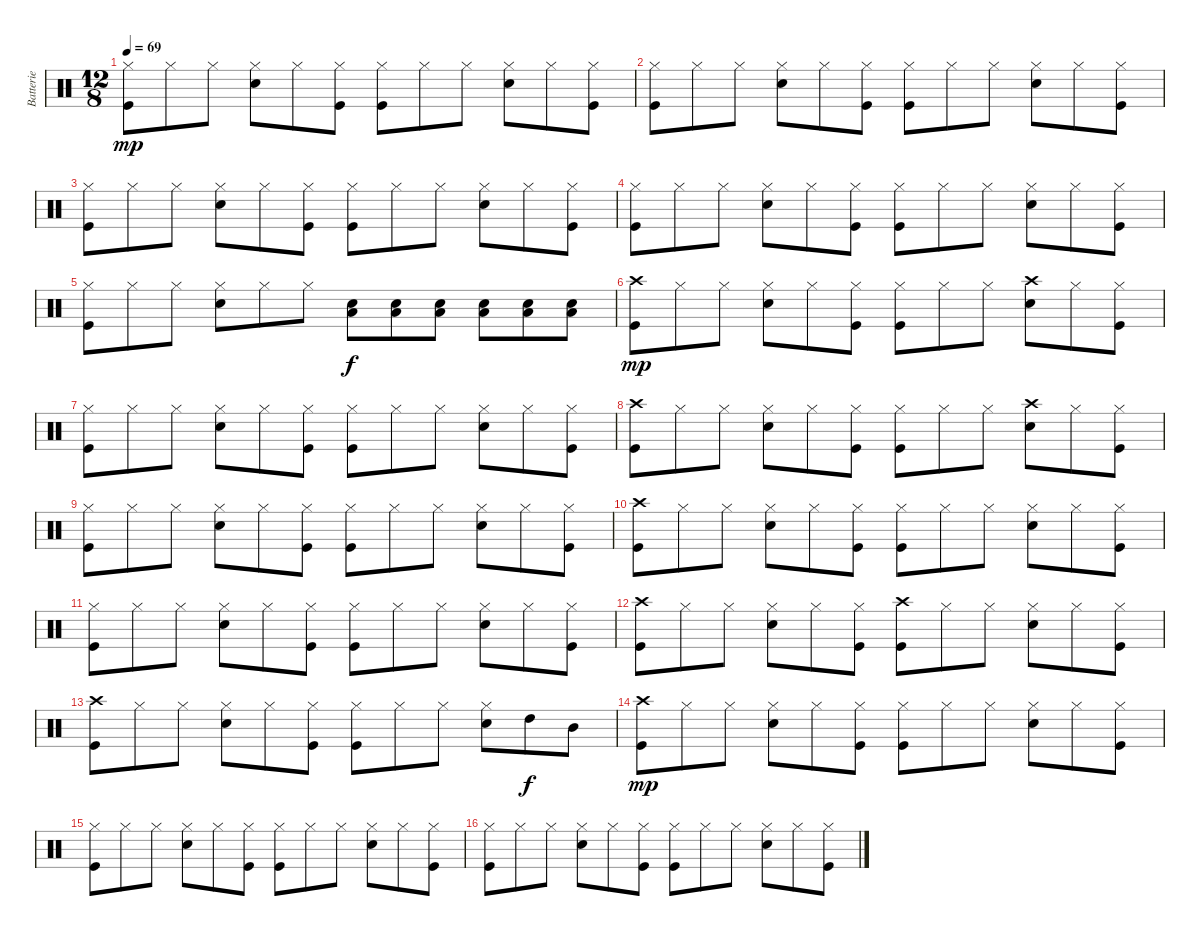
\track ("Batterie" "Batterie") {instrument percussion}
\staff {score}
\articulation defaults
\ts (12 8)
\tempo 69
\clef neutral
\ks c
("Hi-Hat (closed)" "Kick (hit)").8{dy mp} "Hi-Hat (closed)".8 "Hi-Hat (closed)".8 ("Hi-Hat (closed)" "Snare (hit) 2").8 "Hi-Hat (closed)".8 ("Hi-Hat (closed)" "Kick (hit)").8 ("Hi-Hat (closed)" "Kick (hit)").8 "Hi-Hat (closed)".8 "Hi-Hat (closed)".8 ("Hi-Hat (closed)" "Snare (hit) 2").8 "Hi-Hat (closed)".8 ("Hi-Hat (closed)" "Kick (hit)").8 |
("Hi-Hat (closed)" "Kick (hit)").8 "Hi-Hat (closed)".8 "Hi-Hat (closed)".8 ("Hi-Hat (closed)" "Snare (hit) 2").8 "Hi-Hat (closed)".8 ("Hi-Hat (closed)" "Kick (hit)").8 ("Hi-Hat (closed)" "Kick (hit)").8 "Hi-Hat (closed)".8 "Hi-Hat (closed)".8 ("Hi-Hat (closed)" "Snare (hit) 2").8 "Hi-Hat (closed)".8 ("Hi-Hat (closed)" "Kick (hit)").8 |
("Hi-Hat (closed)" "Kick (hit)").8 "Hi-Hat (closed)".8 "Hi-Hat (closed)".8 ("Hi-Hat (closed)" "Snare (hit) 2").8 "Hi-Hat (closed)".8 ("Hi-Hat (closed)" "Kick (hit)").8 ("Hi-Hat (closed)" "Kick (hit)").8 "Hi-Hat (closed)".8 "Hi-Hat (closed)".8 ("Hi-Hat (closed)" "Snare (hit) 2").8 "Hi-Hat (closed)".8 ("Hi-Hat (closed)" "Kick (hit)").8 |
("Hi-Hat (closed)" "Kick (hit)").8 "Hi-Hat (closed)".8 "Hi-Hat (closed)".8 ("Hi-Hat (closed)" "Snare (hit) 2").8 "Hi-Hat (closed)".8 ("Hi-Hat (closed)" "Kick (hit)").8 ("Hi-Hat (closed)" "Kick (hit)").8 "Hi-Hat (closed)".8 "Hi-Hat (closed)".8 ("Hi-Hat (closed)" "Snare (hit) 2").8 "Hi-Hat (closed)".8 ("Hi-Hat (closed)" "Kick (hit)").8 |
("Hi-Hat (closed)" "Kick (hit)").8 "Hi-Hat (closed)".8 "Hi-Hat (closed)".8 ("Hi-Hat (closed)" "Snare (hit) 2").8 "Hi-Hat (closed)".8 "Hi-Hat (closed)".8 ("Snare (hit) 2" "Low Tom (hit)").8{dy f} ("Snare (hit) 2" "Low Tom (hit)").8 ("Snare (hit) 2" "Low Tom (hit)").8 ("Snare (hit) 2" "Low Tom (hit)").8 ("Snare (hit) 2" "Low Tom (hit)").8 ("Snare (hit) 2" "Low Tom (hit)").8 |
("Crash high (hit)" "Kick (hit)").8{dy mp} "Hi-Hat (closed)".8 "Hi-Hat (closed)".8 ("Hi-Hat (closed)" "Snare (hit) 2").8 "Hi-Hat (closed)".8 ("Hi-Hat (closed)" "Kick (hit)").8 ("Hi-Hat (closed)" "Kick (hit)").8 "Hi-Hat (closed)".8 "Hi-Hat (closed)".8 ("Crash high (hit)" "Snare (hit) 2").8 "Hi-Hat (closed)".8 ("Hi-Hat (closed)" "Kick (hit)").8 |
("Hi-Hat (closed)" "Kick (hit)").8 "Hi-Hat (closed)".8 "Hi-Hat (closed)".8 ("Hi-Hat (closed)" "Snare (hit) 2").8 "Hi-Hat (closed)".8 ("Hi-Hat (closed)" "Kick (hit)").8 ("Hi-Hat (closed)" "Kick (hit)").8 "Hi-Hat (closed)".8 "Hi-Hat (closed)".8 ("Hi-Hat (closed)" "Snare (hit) 2").8 "Hi-Hat (closed)".8 ("Hi-Hat (closed)" "Kick (hit)").8 |
("Crash high (hit)" "Kick (hit)").8 "Hi-Hat (closed)".8 "Hi-Hat (closed)".8 ("Hi-Hat (closed)" "Snare (hit) 2").8 "Hi-Hat (closed)".8 ("Hi-Hat (closed)" "Kick (hit)").8 ("Hi-Hat (closed)" "Kick (hit)").8 "Hi-Hat (closed)".8 "Hi-Hat (closed)".8 ("Crash high (hit)" "Snare (hit) 2").8 "Hi-Hat (closed)".8 ("Hi-Hat (closed)" "Kick (hit)").8 |
("Hi-Hat (closed)" "Kick (hit)").8 "Hi-Hat (closed)".8 "Hi-Hat (closed)".8 ("Hi-Hat (closed)" "Snare (hit) 2").8 "Hi-Hat (closed)".8 ("Hi-Hat (closed)" "Kick (hit)").8 ("Hi-Hat (closed)" "Kick (hit)").8 "Hi-Hat (closed)".8 "Hi-Hat (closed)".8 ("Hi-Hat (closed)" "Snare (hit) 2").8 "Hi-Hat (closed)".8 ("Hi-Hat (closed)" "Kick (hit)").8 |
("Crash high (hit)" "Kick (hit)").8 "Hi-Hat (closed)".8 "Hi-Hat (closed)".8 ("Hi-Hat (closed)" "Snare (hit) 2").8 "Hi-Hat (closed)".8 ("Hi-Hat (closed)" "Kick (hit)").8 ("Hi-Hat (closed)" "Kick (hit)").8 "Hi-Hat (closed)".8 "Hi-Hat (closed)".8 ("Hi-Hat (closed)" "Snare (hit) 2").8 "Hi-Hat (closed)".8 ("Hi-Hat (closed)" "Kick (hit)").8 |
("Hi-Hat (closed)" "Kick (hit)").8 "Hi-Hat (closed)".8 "Hi-Hat (closed)".8 ("Hi-Hat (closed)" "Snare (hit) 2").8 "Hi-Hat (closed)".8 ("Hi-Hat (closed)" "Kick (hit)").8 ("Hi-Hat (closed)" "Kick (hit)").8 "Hi-Hat (closed)".8 "Hi-Hat (closed)".8 ("Hi-Hat (closed)" "Snare (hit) 2").8 "Hi-Hat (closed)".8 ("Hi-Hat (closed)" "Kick (hit)").8 |
("Crash high (hit)" "Kick (hit)").8 "Hi-Hat (closed)".8 "Hi-Hat (closed)".8 ("Hi-Hat (closed)" "Snare (hit) 2").8 "Hi-Hat (closed)".8 ("Hi-Hat (closed)" "Kick (hit)").8 ("Crash high (hit)" "Kick (hit)").8 "Hi-Hat (closed)".8 "Hi-Hat (closed)".8 ("Hi-Hat (closed)" "Snare (hit) 2").8 "Hi-Hat (closed)".8 ("Hi-Hat (closed)" "Kick (hit)").8 |
("Crash high (hit)" "Kick (hit)").8 "Hi-Hat (closed)".8 "Hi-Hat (closed)".8 ("Hi-Hat (closed)" "Snare (hit) 2").8 "Hi-Hat (closed)".8 ("Hi-Hat (closed)" "Kick (hit)").8 ("Hi-Hat (closed)" "Kick (hit)").8 "Hi-Hat (closed)".8 "Hi-Hat (closed)".8 ("Hi-Hat (closed)" "Snare (hit) 2").8 "High Tom (hit)".8{dy f} "Mid Tom (hit)".8 |
("Crash high (hit)" "Kick (hit)").8{dy mp} "Hi-Hat (closed)".8 "Hi-Hat (closed)".8 ("Hi-Hat (closed)" "Snare (hit) 2").8 "Hi-Hat (closed)".8 ("Hi-Hat (closed)" "Kick (hit)").8 ("Hi-Hat (closed)" "Kick (hit)").8 "Hi-Hat (closed)".8 "Hi-Hat (closed)".8 ("Hi-Hat (closed)" "Snare (hit) 2").8 "Hi-Hat (closed)".8 ("Hi-Hat (closed)" "Kick (hit)").8 |
("Hi-Hat (closed)" "Kick (hit)").8 "Hi-Hat (closed)".8 "Hi-Hat (closed)".8 ("Hi-Hat (closed)" "Snare (hit) 2").8 "Hi-Hat (closed)".8 ("Hi-Hat (closed)" "Kick (hit)").8 ("Hi-Hat (closed)" "Kick (hit)").8 "Hi-Hat (closed)".8 "Hi-Hat (closed)".8 ("Hi-Hat (closed)" "Snare (hit) 2").8 "Hi-Hat (closed)".8 ("Hi-Hat (closed)" "Kick (hit)").8 |
("Hi-Hat (closed)" "Kick (hit)").8 "Hi-Hat (closed)".8 "Hi-Hat (closed)".8 ("Hi-Hat (closed)" "Snare (hit) 2").8 "Hi-Hat (closed)".8 ("Hi-Hat (closed)" "Kick (hit)").8 ("Hi-Hat (closed)" "Kick (hit)").8 "Hi-Hat (closed)".8 "Hi-Hat (closed)".8 ("Hi-Hat (closed)" "Snare (hit) 2").8 "Hi-Hat (closed)".8 ("Hi-Hat (closed)" "Kick (hit)").8
